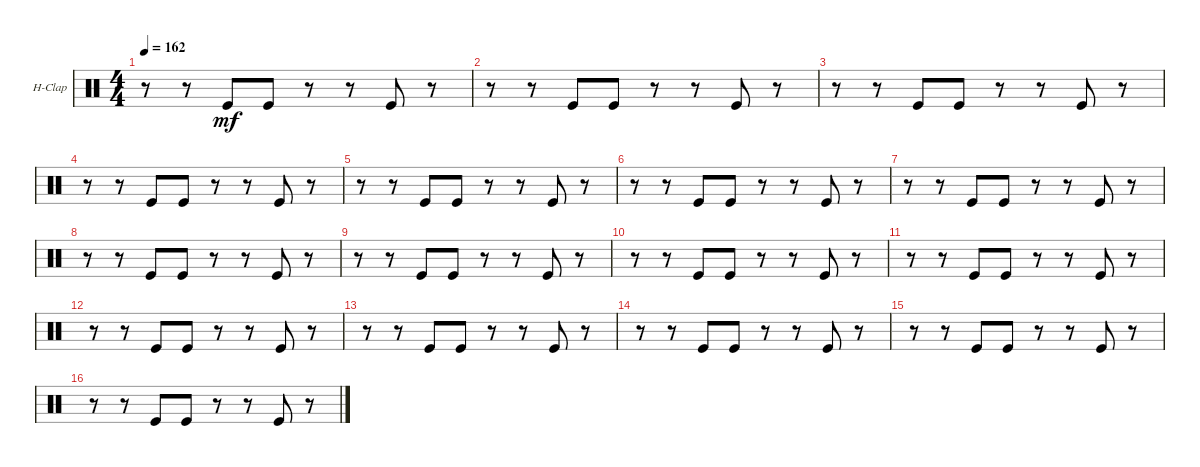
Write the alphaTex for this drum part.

\defaultSystemsLayout 4
\bracketExtendMode groupsimilarinstruments
\firstSystemTrackNameOrientation horizontal
\otherSystemsTrackNameOrientation horizontal
\track ("Hand Clap" "H-Clap") {instrument percussion}
\staff {score}
\articulation defaults
\ts (4 4)
\tempo 162
\clef neutral
\ks c
r.8{dy mf} r.8 "Kick (hit)".8 "Kick (hit)".8 r.8 r.8 "Kick (hit)".8 r.8 |
r.8 r.8 "Kick (hit)".8 "Kick (hit)".8 r.8 r.8 "Kick (hit)".8 r.8 |
r.8 r.8 "Kick (hit)".8 "Kick (hit)".8 r.8 r.8 "Kick (hit)".8 r.8 |
r.8 r.8 "Kick (hit)".8 "Kick (hit)".8 r.8 r.8 "Kick (hit)".8 r.8 |
r.8 r.8 "Kick (hit)".8 "Kick (hit)".8 r.8 r.8 "Kick (hit)".8 r.8 |
r.8 r.8 "Kick (hit)".8 "Kick (hit)".8 r.8 r.8 "Kick (hit)".8 r.8 |
r.8 r.8 "Kick (hit)".8 "Kick (hit)".8 r.8 r.8 "Kick (hit)".8 r.8 |
r.8 r.8 "Kick (hit)".8 "Kick (hit)".8 r.8 r.8 "Kick (hit)".8 r.8 |
r.8 r.8 "Kick (hit)".8 "Kick (hit)".8 r.8 r.8 "Kick (hit)".8 r.8 |
r.8 r.8 "Kick (hit)".8 "Kick (hit)".8 r.8 r.8 "Kick (hit)".8 r.8 |
r.8 r.8 "Kick (hit)".8 "Kick (hit)".8 r.8 r.8 "Kick (hit)".8 r.8 |
r.8 r.8 "Kick (hit)".8 "Kick (hit)".8 r.8 r.8 "Kick (hit)".8 r.8 |
r.8 r.8 "Kick (hit)".8 "Kick (hit)".8 r.8 r.8 "Kick (hit)".8 r.8 |
r.8 r.8 "Kick (hit)".8 "Kick (hit)".8 r.8 r.8 "Kick (hit)".8 r.8 |
r.8 r.8 "Kick (hit)".8 "Kick (hit)".8 r.8 r.8 "Kick (hit)".8 r.8 |
r.8 r.8 "Kick (hit)".8 "Kick (hit)".8 r.8 r.8 "Kick (hit)".8 r.8
